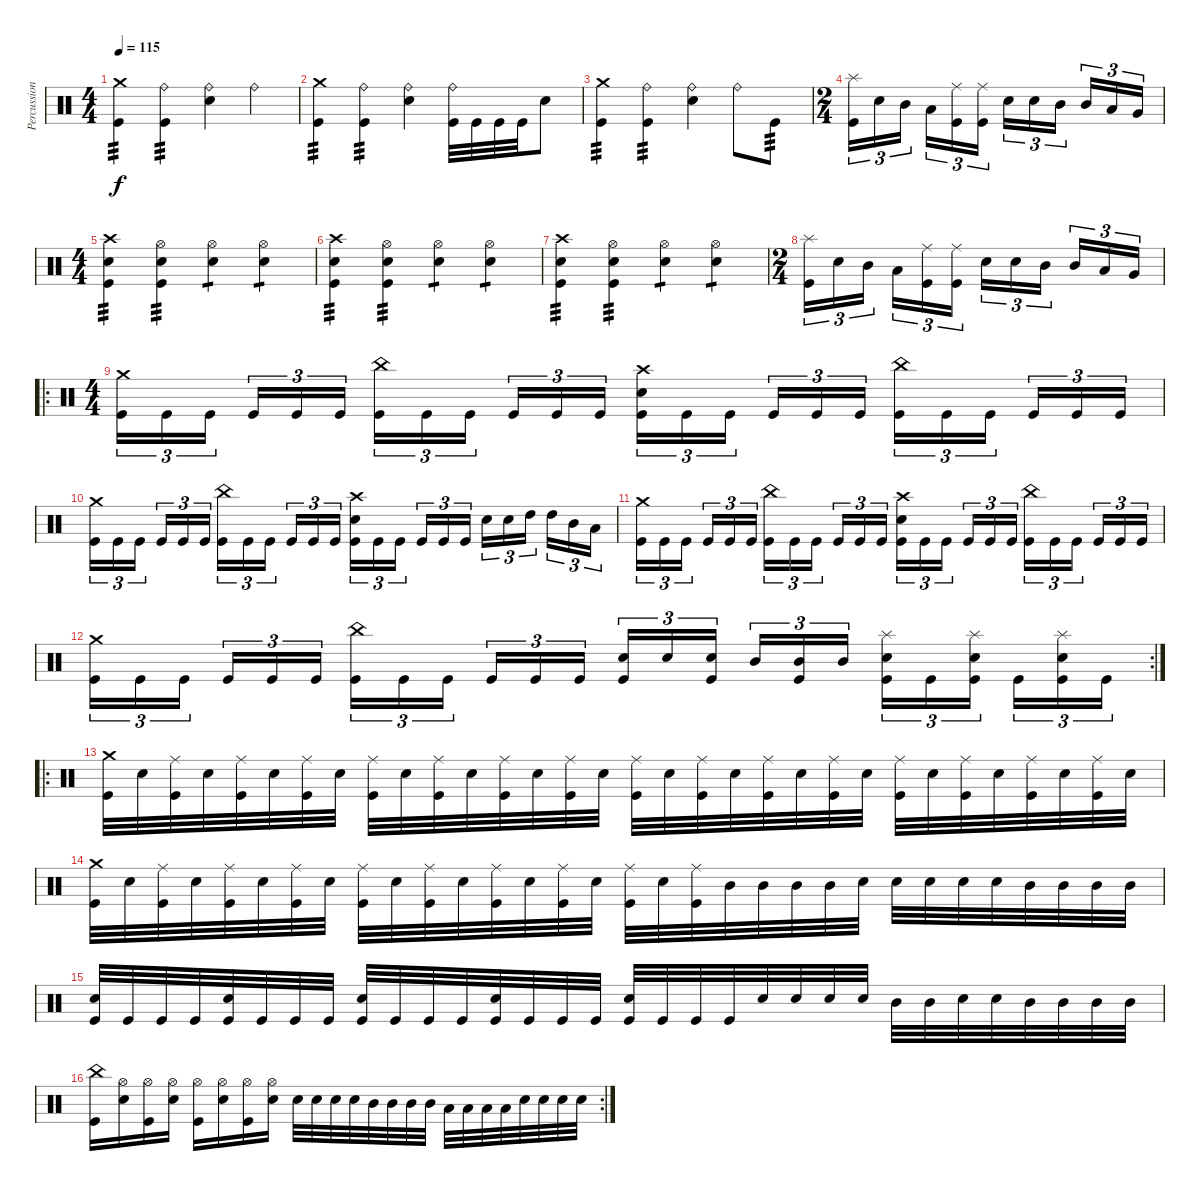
\track ("Percussion" "Percussion") {instrument percussion}
\staff {score}
\articulation defaults
\ts (4 4)
\tempo 115
\clef neutral
\ks c
("Crash medium (hit)" "Kick (hit)").4{tp 3 dy f} ("Ride (bell)" "Kick (hit)").4{tp 3} ("Ride (bell)" "Electric Snare (hit)").4 "Ride (bell)".4 |
("Crash medium (hit)" "Kick (hit)").4{tp 3} ("Ride (bell)" "Kick (hit)").4{tp 3} ("Ride (bell)" "Electric Snare (hit)").4 ("Ride (bell)" "Kick (hit)").32 "Kick (hit)".32 "Kick (hit)".32 "Kick (hit)".32 "Electric Snare (hit)".8 |
("Crash medium (hit)" "Kick (hit)").4{tp 3} ("Ride (bell)" "Kick (hit)").4{tp 3} ("Ride (bell)" "Electric Snare (hit)").4 "Ride (bell)".8 "Kick (hit)".8{tp 3} |
\ts (2 4)
("Splash (hit)" "Kick (hit)").16{tu (3 2)} "Electric Snare (hit)".16{tu (3 2)} "Mid Tom (hit)".16{tu (3 2) beam splitsecondary} "Low Tom (hit)".16{tu (3 2)} ("Ride (middle)" "Kick (hit)").16{tu (3 2)} ("Ride (middle)" "Kick (hit)").16{tu (3 2)} "Electric Snare (hit)".16{tu (3 2)} "Electric Snare (hit)".16{tu (3 2)} "Mid Tom (hit)".16{tu (3 2) beam splitsecondary} "Mid Tom (hit)".16{tu (3 2)} "Low Tom (hit)".16{tu (3 2)} "Very Low Tom (hit)".16{tu (3 2)} |
\ts (4 4)
("Crash high (hit)" "Electric Snare (hit)" "Kick (hit)").4{tp 3} ("Hi-Hat (open)" "Electric Snare (hit)" "Kick (hit)").4{tp 3} ("Hi-Hat (open)" "Electric Snare (hit)").4{tp 1} ("Hi-Hat (open)" "Electric Snare (hit)").4{tp 1} |
("Crash high (hit)" "Electric Snare (hit)" "Kick (hit)").4{tp 3} ("Hi-Hat (open)" "Electric Snare (hit)" "Kick (hit)").4{tp 3} ("Hi-Hat (open)" "Electric Snare (hit)").4{tp 1} ("Hi-Hat (open)" "Electric Snare (hit)").4{tp 1} |
("Crash high (hit)" "Electric Snare (hit)" "Kick (hit)").4{tp 3} ("Hi-Hat (open)" "Electric Snare (hit)" "Kick (hit)").4{tp 3} ("Hi-Hat (open)" "Electric Snare (hit)").4{tp 1} ("Hi-Hat (open)" "Electric Snare (hit)").4{tp 1} |
\ts (2 4)
("Splash (hit)" "Kick (hit)").16{tu (3 2)} "Electric Snare (hit)".16{tu (3 2)} "Mid Tom (hit)".16{tu (3 2) beam splitsecondary} "Low Tom (hit)".16{tu (3 2)} ("Ride (middle)" "Kick (hit)").16{tu (3 2)} ("Ride (middle)" "Kick (hit)").16{tu (3 2)} "Electric Snare (hit)".16{tu (3 2)} "Electric Snare (hit)".16{tu (3 2)} "Mid Tom (hit)".16{tu (3 2) beam splitsecondary} "Mid Tom (hit)".16{tu (3 2)} "Low Tom (hit)".16{tu (3 2)} "Very Low Tom (hit)".16{tu (3 2)} |
\ro
\ts (4 4)
("Crash medium (hit)" "Kick (hit)").16{tu (3 2)} "Kick (hit)".16{tu (3 2)} "Kick (hit)".16{tu (3 2) beam splitsecondary} "Kick (hit)".16{tu (3 2)} "Kick (hit)".16{tu (3 2)} "Kick (hit)".16{tu (3 2)} ("China (hit)" "Kick (hit)").16{tu (3 2)} "Kick (hit)".16{tu (3 2)} "Kick (hit)".16{tu (3 2) beam splitsecondary} "Kick (hit)".16{tu (3 2)} "Kick (hit)".16{tu (3 2)} "Kick (hit)".16{tu (3 2)} ("Crash high (hit)" "Electric Snare (hit)" "Kick (hit)").16{tu (3 2)} "Kick (hit)".16{tu (3 2)} "Kick (hit)".16{tu (3 2) beam splitsecondary} "Kick (hit)".16{tu (3 2)} "Kick (hit)".16{tu (3 2)} "Kick (hit)".16{tu (3 2)} ("China (hit)" "Kick (hit)").16{tu (3 2)} "Kick (hit)".16{tu (3 2)} "Kick (hit)".16{tu (3 2) beam splitsecondary} "Kick (hit)".16{tu (3 2)} "Kick (hit)".16{tu (3 2)} "Kick (hit)".16{tu (3 2)} |
("Crash medium (hit)" "Kick (hit)").16{tu (3 2)} "Kick (hit)".16{tu (3 2)} "Kick (hit)".16{tu (3 2) beam splitsecondary} "Kick (hit)".16{tu (3 2)} "Kick (hit)".16{tu (3 2)} "Kick (hit)".16{tu (3 2)} ("China (hit)" "Kick (hit)").16{tu (3 2)} "Kick (hit)".16{tu (3 2)} "Kick (hit)".16{tu (3 2) beam splitsecondary} "Kick (hit)".16{tu (3 2)} "Kick (hit)".16{tu (3 2)} "Kick (hit)".16{tu (3 2)} ("Crash high (hit)" "Electric Snare (hit)" "Kick (hit)").16{tu (3 2)} "Kick (hit)".16{tu (3 2)} "Kick (hit)".16{tu (3 2) beam splitsecondary} "Kick (hit)".16{tu (3 2)} "Kick (hit)".16{tu (3 2)} "Kick (hit)".16{tu (3 2)} "Electric Snare (hit)".16{tu (3 2)} "Electric Snare (hit)".16{tu (3 2)} "High Tom (hit)".16{tu (3 2) beam splitsecondary} "High Tom (hit)".16{tu (3 2)} "Mid Tom (hit)".16{tu (3 2)} "Low Tom (hit)".16{tu (3 2)} |
("Crash medium (hit)" "Kick (hit)").16{tu (3 2)} "Kick (hit)".16{tu (3 2)} "Kick (hit)".16{tu (3 2) beam splitsecondary} "Kick (hit)".16{tu (3 2)} "Kick (hit)".16{tu (3 2)} "Kick (hit)".16{tu (3 2)} ("China (hit)" "Kick (hit)").16{tu (3 2)} "Kick (hit)".16{tu (3 2)} "Kick (hit)".16{tu (3 2) beam splitsecondary} "Kick (hit)".16{tu (3 2)} "Kick (hit)".16{tu (3 2)} "Kick (hit)".16{tu (3 2)} ("Crash high (hit)" "Electric Snare (hit)" "Kick (hit)").16{tu (3 2)} "Kick (hit)".16{tu (3 2)} "Kick (hit)".16{tu (3 2) beam splitsecondary} "Kick (hit)".16{tu (3 2)} "Kick (hit)".16{tu (3 2)} "Kick (hit)".16{tu (3 2)} ("China (hit)" "Kick (hit)").16{tu (3 2)} "Kick (hit)".16{tu (3 2)} "Kick (hit)".16{tu (3 2) beam splitsecondary} "Kick (hit)".16{tu (3 2)} "Kick (hit)".16{tu (3 2)} "Kick (hit)".16{tu (3 2)} |
\rc 2
("Crash medium (hit)" "Kick (hit)").16{tu (3 2)} "Kick (hit)".16{tu (3 2)} "Kick (hit)".16{tu (3 2) beam splitsecondary} "Kick (hit)".16{tu (3 2)} "Kick (hit)".16{tu (3 2)} "Kick (hit)".16{tu (3 2)} ("China (hit)" "Kick (hit)").16{tu (3 2)} "Kick (hit)".16{tu (3 2)} "Kick (hit)".16{tu (3 2) beam splitsecondary} "Kick (hit)".16{tu (3 2)} "Kick (hit)".16{tu (3 2)} "Kick (hit)".16{tu (3 2)} ("Electric Snare (hit)" "Kick (hit)").16{tu (3 2)} "Electric Snare (hit)".16{tu (3 2)} ("Electric Snare (hit)" "Kick (hit)").16{tu (3 2) beam splitsecondary} "Mid Tom (hit)".16{tu (3 2)} ("Mid Tom (hit)" "Kick (hit)").16{tu (3 2)} "Mid Tom (hit)".16{tu (3 2)} ("Splash (hit)" "Electric Snare (hit)" "Kick (hit)").16{tu (3 2)} "Kick (hit)".16{tu (3 2)} ("Splash (hit)" "Electric Snare (hit)" "Kick (hit)").16{tu (3 2) beam splitsecondary} "Kick (hit)".16{tu (3 2)} ("Splash (hit)" "Electric Snare (hit)" "Kick (hit)").16{tu (3 2)} "Kick (hit)".16{tu (3 2)} |
\ro
("Crash medium (hit)" "Kick (hit)").32 "Electric Snare (hit)".32 ("Ride (middle)" "Kick (hit)").32 "Electric Snare (hit)".32 ("Ride (middle)" "Kick (hit)").32 "Electric Snare (hit)".32 ("Ride (middle)" "Kick (hit)").32 "Electric Snare (hit)".32 ("Ride (middle)" "Kick (hit)").32 "Electric Snare (hit)".32 ("Ride (middle)" "Kick (hit)").32 "Electric Snare (hit)".32 ("Ride (middle)" "Kick (hit)").32 "Electric Snare (hit)".32 ("Ride (middle)" "Kick (hit)").32 "Electric Snare (hit)".32 ("Ride (middle)" "Kick (hit)").32 "Electric Snare (hit)".32 ("Ride (middle)" "Kick (hit)").32 "Electric Snare (hit)".32 ("Ride (middle)" "Kick (hit)").32 "Electric Snare (hit)".32 ("Ride (middle)" "Kick (hit)").32 "Electric Snare (hit)".32 ("Ride (middle)" "Kick (hit)").32 "Electric Snare (hit)".32 ("Ride (middle)" "Kick (hit)").32 "Electric Snare (hit)".32 ("Ride (middle)" "Kick (hit)").32 "Electric Snare (hit)".32 ("Ride (middle)" "Kick (hit)").32 "Electric Snare (hit)".32 |
("Crash medium (hit)" "Kick (hit)").32 "Electric Snare (hit)".32 ("Ride (middle)" "Kick (hit)").32 "Electric Snare (hit)".32 ("Ride (middle)" "Kick (hit)").32 "Electric Snare (hit)".32 ("Ride (middle)" "Kick (hit)").32 "Electric Snare (hit)".32 ("Ride (middle)" "Kick (hit)").32 "Electric Snare (hit)".32 ("Ride (middle)" "Kick (hit)").32 "Electric Snare (hit)".32 ("Ride (middle)" "Kick (hit)").32 "Electric Snare (hit)".32 ("Ride (middle)" "Kick (hit)").32 "Electric Snare (hit)".32 ("Ride (middle)" "Kick (hit)").32 "Electric Snare (hit)".32 ("Ride (middle)" "Kick (hit)").32 "Mid Tom (hit)".32 "Mid Tom (hit)".32 "Mid Tom (hit)".32 "Mid Tom (hit)".32 "Electric Snare (hit)".32 "Electric Snare (hit)".32 "Electric Snare (hit)".32 "Electric Snare (hit)".32 "Electric Snare (hit)".32 "Mid Tom (hit)".32 "Mid Tom (hit)".32 "Mid Tom (hit)".32 "Mid Tom (hit)".32 |
("Electric Snare (hit)" "Kick (hit)").32 "Kick (hit)".32 "Kick (hit)".32 "Kick (hit)".32 ("Electric Snare (hit)" "Kick (hit)").32 "Kick (hit)".32 "Kick (hit)".32 "Kick (hit)".32 ("Electric Snare (hit)" "Kick (hit)").32 "Kick (hit)".32 "Kick (hit)".32 "Kick (hit)".32 ("Electric Snare (hit)" "Kick (hit)").32 "Kick (hit)".32 "Kick (hit)".32 "Kick (hit)".32 ("Electric Snare (hit)" "Kick (hit)").32 "Kick (hit)".32 "Kick (hit)".32 "Kick (hit)".32 "Electric Snare (hit)".32 "Electric Snare (hit)".32 "Electric Snare (hit)".32 "Electric Snare (hit)".32 "Mid Tom (hit)".32 "Mid Tom (hit)".32 "Electric Snare (hit)".32 "Electric Snare (hit)".32 "Mid Tom (hit)".32 "Mid Tom (hit)".32 "Mid Tom (hit)".32 "Mid Tom (hit)".32 |
\rc 2
("China (hit)" "Kick (hit)").16 ("Hi-Hat (open)" "Electric Snare (hit)").16 ("Hi-Hat (open)" "Kick (hit)").16 ("Hi-Hat (open)" "Electric Snare (hit)").16 ("Hi-Hat (open)" "Kick (hit)").16 ("Hi-Hat (open)" "Electric Snare (hit)").16 ("Hi-Hat (open)" "Kick (hit)").16 ("Hi-Hat (open)" "Electric Snare (hit)").16 "Electric Snare (hit)".32 "Electric Snare (hit)".32 "Electric Snare (hit)".32 "Electric Snare (hit)".32 "Mid Tom (hit)".32 "Mid Tom (hit)".32 "Mid Tom (hit)".32 "Mid Tom (hit)".32 "Low Tom (hit)".32 "Low Tom (hit)".32 "Low Tom (hit)".32 "Low Tom (hit)".32 "Electric Snare (hit)".32 "Electric Snare (hit)".32 "Electric Snare (hit)".32 "Electric Snare (hit)".32
